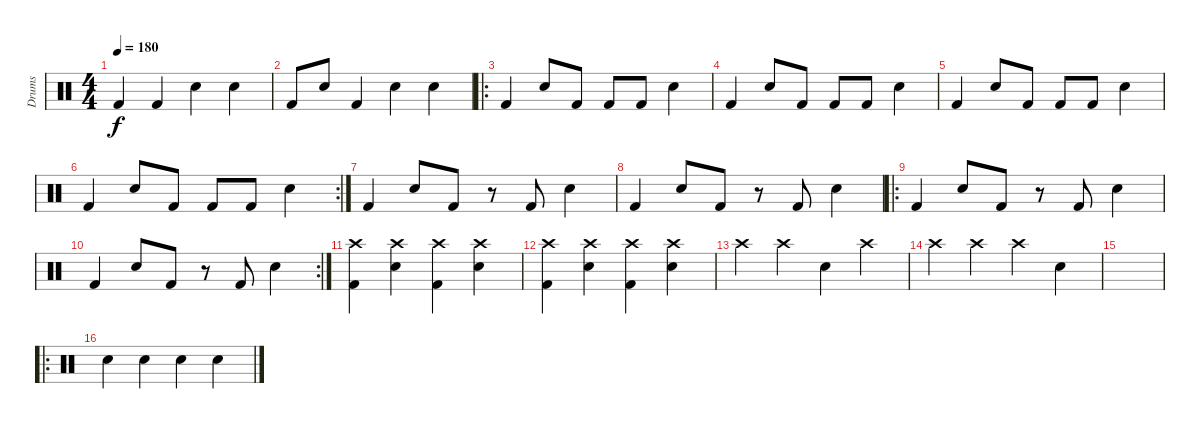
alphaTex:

\track ("Drums" "Drums") {instrument percussion}
\staff {score}
\articulation defaults
\ts (4 4)
\tempo 180
\clef neutral
\ks c "Kick (hit) 2".4{dy f} "Kick (hit) 2".4 "Snare (hit) 2".4 "Snare (hit) 2".4
|
"Kick (hit) 2".8 "Snare (hit) 2".8 "Kick (hit) 2".4 "Snare (hit) 2".4 "Snare (hit) 2".4 |
\ro "Kick (hit) 2".4 "Snare (hit) 2".8 "Kick (hit) 2".8 "Kick (hit) 2".8 "Kick (hit) 2".8 "Snare (hit) 2".4
|
"Kick (hit) 2".4 "Snare (hit) 2".8 "Kick (hit) 2".8 "Kick (hit) 2".8 "Kick (hit) 2".8 "Snare (hit) 2".4 |
"Kick (hit) 2".4 "Snare (hit) 2".8 "Kick (hit) 2".8 "Kick (hit) 2".8 "Kick (hit) 2".8 "Snare (hit) 2".4 |
\rc 2 "Kick (hit) 2".4 "Snare (hit) 2".8 "Kick (hit) 2".8 "Kick (hit) 2".8 "Kick (hit) 2".8 "Snare (hit) 2".4
|
"Kick (hit) 2".4 "Snare (hit) 2".8 "Kick (hit) 2".8 r.8 "Kick (hit) 2".8 "Snare (hit) 2".4 |
"Kick (hit) 2".4 "Snare (hit) 2".8 "Kick (hit) 2".8 r.8 "Kick (hit) 2".8 "Snare (hit) 2".4 |
\ro "Kick (hit) 2".4 "Snare (hit) 2".8 "Kick (hit) 2".8
r.8 "Kick (hit) 2".8 "Snare (hit) 2".4 |
\rc 2 "Kick (hit) 2".4 "Snare (hit) 2".8 "Kick (hit) 2".8
r.8 "Kick (hit) 2".8 "Snare (hit) 2".4 |
("Crash high (hit)" "Kick (hit) 2").4 ("Crash high (hit)" "Snare (hit) 2").4 ("Crash high (hit)" "Kick (hit) 2").4 ("Crash high (hit)" "Snare (hit) 2").4 |
("Crash high (hit)" "Kick (hit) 2").4 ("Crash high (hit)" "Snare (hit) 2").4 ("Crash high (hit)" "Kick (hit) 2").4 ("Crash high (hit)" "Snare (hit) 2").4 |
"Crash high (hit)".4 "Crash high (hit)".4 "Snare (hit) 2".4 "Crash high (hit)".4 |
"Crash high (hit)".4 "Crash high (hit)".4 "Crash high (hit)".4 "Snare (hit) 2".4 |
|
\ro "Snare (hit) 2".4 "Snare (hit) 2".4 "Snare (hit) 2".4 "Snare (hit) 2".4
